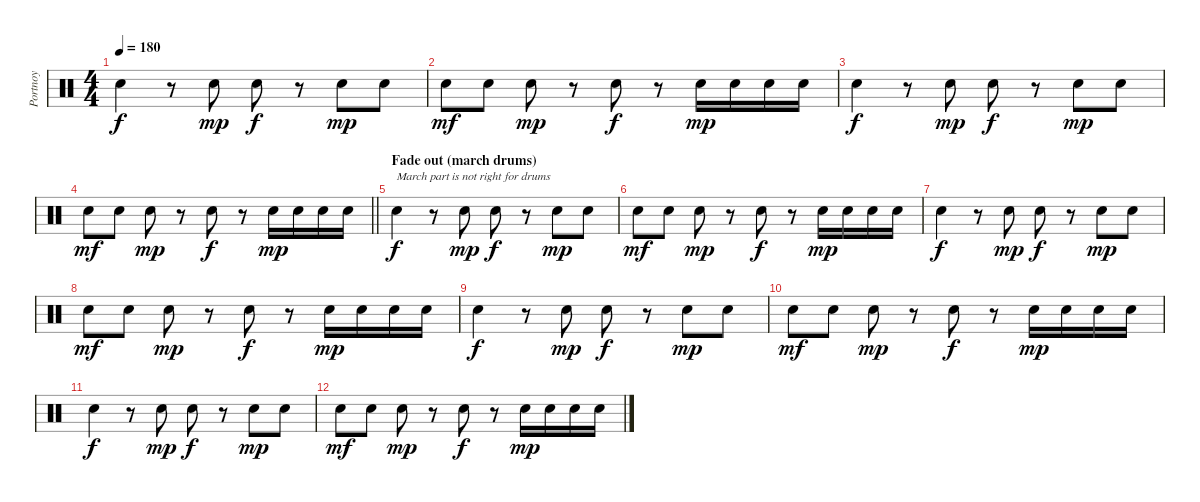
\track ("Portnoy" "Portnoy") {instrument percussion}
\staff {score}
\articulation defaults
\ts (4 4)
\tempo 180
\clef neutral
\ks c "Electric Snare (hit)".4{dy f}
r.8 "Electric Snare (hit)".8{dy mp} "Electric Snare (hit)".8{dy f} r.8 "Electric Snare (hit)".8{dy mp} "Electric Snare (hit)".8 |
"Electric Snare (hit)".8{dy mf} "Electric Snare (hit)".8 "Electric Snare (hit)".8{dy mp} r.8 "Electric Snare (hit)".8{dy f} r.8 "Electric Snare (hit)".16{dy mp} "Electric Snare (hit)".16 "Electric Snare (hit)".16 "Electric Snare (hit)".16 |
"Electric Snare (hit)".4{dy f} r.8 "Electric Snare (hit)".8{dy mp} "Electric Snare (hit)".8{dy f} r.8 "Electric Snare (hit)".8{dy mp} "Electric Snare (hit)".8 |
\barLineRight lightlight "Electric Snare (hit)".8{dy mf} "Electric Snare (hit)".8 "Electric Snare (hit)".8{dy mp}
r.8 "Electric Snare (hit)".8{dy f} r.8 "Electric Snare (hit)".16{dy mp} "Electric Snare (hit)".16 "Electric Snare (hit)".16 "Electric Snare (hit)".16 |
\section ("" "Fade out (march drums)")
"Electric Snare (hit)".4{txt "March part is not right for drums" dy f} r.8 "Electric Snare (hit)".8{dy mp} "Electric Snare (hit)".8{dy f} r.8 "Electric Snare (hit)".8{dy mp} "Electric Snare (hit)".8 |
"Electric Snare (hit)".8{dy mf} "Electric Snare (hit)".8 "Electric Snare (hit)".8{dy mp} r.8 "Electric Snare (hit)".8{dy f} r.8 "Electric Snare (hit)".16{dy mp} "Electric Snare (hit)".16 "Electric Snare (hit)".16 "Electric Snare (hit)".16 |
"Electric Snare (hit)".4{dy f} r.8 "Electric Snare (hit)".8{dy mp} "Electric Snare (hit)".8{dy f} r.8 "Electric Snare (hit)".8{dy mp} "Electric Snare (hit)".8 |
"Electric Snare (hit)".8{dy mf} "Electric Snare (hit)".8 "Electric Snare (hit)".8{dy mp} r.8 "Electric Snare (hit)".8{dy f} r.8 "Electric Snare (hit)".16{dy mp} "Electric Snare (hit)".16 "Electric Snare (hit)".16 "Electric Snare (hit)".16 |
"Electric Snare (hit)".4{dy f} r.8 "Electric Snare (hit)".8{dy mp} "Electric Snare (hit)".8{dy f} r.8 "Electric Snare (hit)".8{dy mp} "Electric Snare (hit)".8 |
"Electric Snare (hit)".8{dy mf} "Electric Snare (hit)".8 "Electric Snare (hit)".8{dy mp} r.8 "Electric Snare (hit)".8{dy f} r.8 "Electric Snare (hit)".16{dy mp} "Electric Snare (hit)".16 "Electric Snare (hit)".16 "Electric Snare (hit)".16 |
"Electric Snare (hit)".4{dy f} r.8 "Electric Snare (hit)".8{dy mp} "Electric Snare (hit)".8{dy f} r.8 "Electric Snare (hit)".8{dy mp} "Electric Snare (hit)".8 |
"Electric Snare (hit)".8{dy mf} "Electric Snare (hit)".8 "Electric Snare (hit)".8{dy mp} r.8 "Electric Snare (hit)".8{dy f} r.8 "Electric Snare (hit)".16{dy mp} "Electric Snare (hit)".16 "Electric Snare (hit)".16 "Electric Snare (hit)".16
